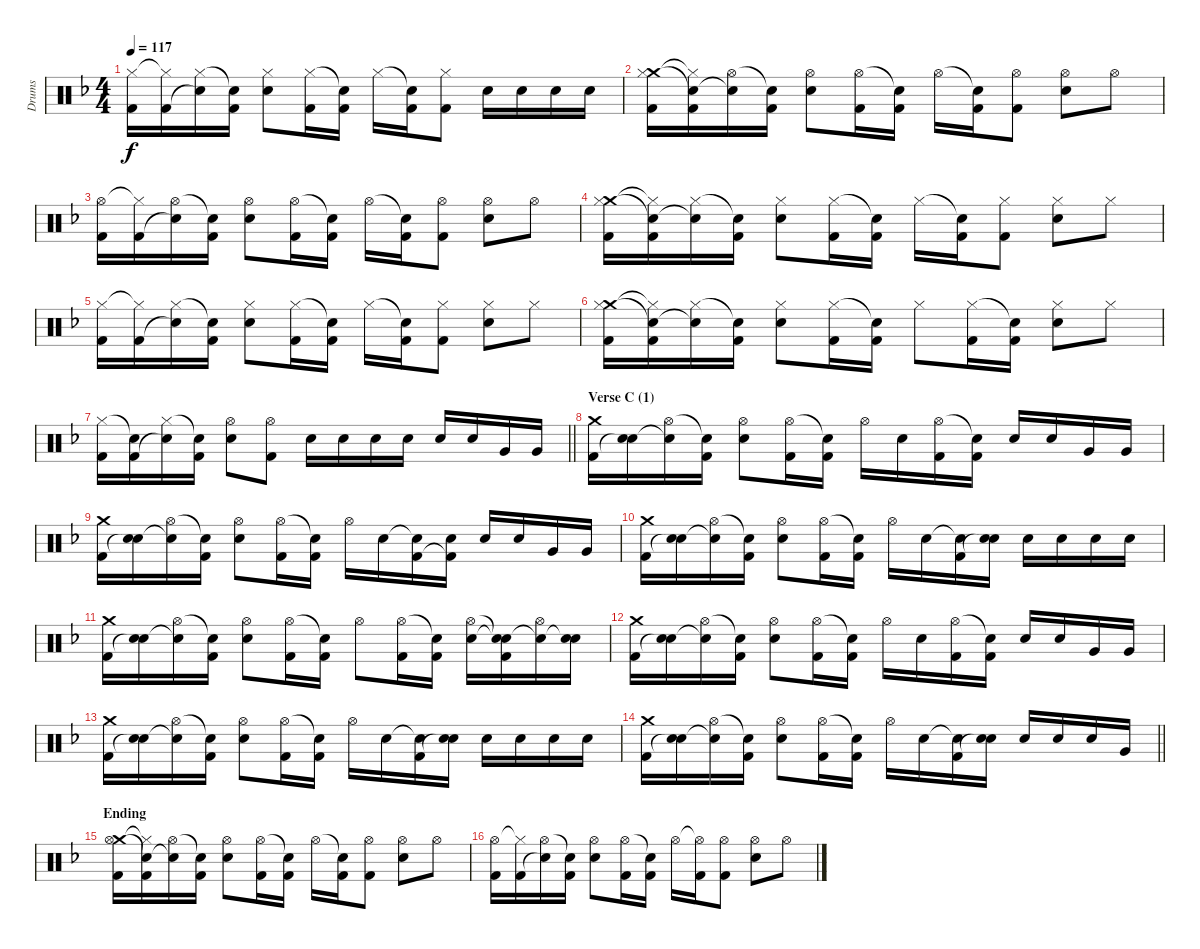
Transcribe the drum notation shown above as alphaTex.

\track ("Drums" "Drums") {instrument percussion}
\staff {score}
\articulation defaults
\ts (4 4)
\tempo 117
\clef neutral
\ks dminor
("Hi-Hat (closed)" "Kick (hit) 2").16{dy f} ("Hi-Hat (closed)"{t} "Kick (hit) 2").16 ("Hi-Hat (closed)" "Snare (hit)"{t}).16 ("Snare (hit)"{t} "Kick (hit) 2").16 ("Hi-Hat (closed)" "Electric Snare (hit)").8 ("Hi-Hat (closed)" "Kick (hit) 2").16 ("Snare (hit)"{t} "Kick (hit) 2").16 "Hi-Hat (closed)".16 ("Snare (hit)"{t} "Kick (hit) 2").16 ("Hi-Hat (closed)" "Kick (hit) 2").8 "Electric Snare (hit)".16 "Electric Snare (hit)".16 "Electric Snare (hit)".16 "Electric Snare (hit)".16 |
("Crash medium (hit)" "Hi-Hat (closed)" "Kick (hit) 2").16 ("Hi-Hat (closed)"{t} "Snare (hit)"{t} "Kick (hit) 2").16 ("Hi-Hat (open)" "Snare (hit)"{t}).16 ("Snare (hit)"{t} "Kick (hit) 2").16 ("Hi-Hat (open)" "Electric Snare (hit)").8 ("Hi-Hat (open)" "Kick (hit) 2").16 ("Snare (hit)"{t} "Kick (hit) 2").16 "Hi-Hat (open)".16 ("Snare (hit)"{t} "Kick (hit) 2").16 ("Hi-Hat (open)" "Kick (hit) 2").8 ("Hi-Hat (open)" "Electric Snare (hit)").8 "Hi-Hat (open)".8 |
("Hi-Hat (open)" "Kick (hit) 2").16 ("Hi-Hat (closed)"{t} "Kick (hit) 2").16 ("Hi-Hat (open)" "Snare (hit)"{t}).16 ("Snare (hit)"{t} "Kick (hit) 2").16 ("Hi-Hat (open)" "Electric Snare (hit)").8 ("Hi-Hat (open)" "Kick (hit) 2").16 ("Snare (hit)"{t} "Kick (hit) 2").16 "Hi-Hat (open)".16 ("Snare (hit)"{t} "Kick (hit) 2").16 ("Hi-Hat (open)" "Kick (hit) 2").8 ("Hi-Hat (open)" "Electric Snare (hit)").8 "Hi-Hat (open)".8 |
("Crash medium (hit)" "Hi-Hat (closed)" "Kick (hit) 2").16 ("Hi-Hat (closed)"{t} "Snare (hit)"{t} "Kick (hit) 2").16 ("Hi-Hat (closed)" "Snare (hit)"{t}).16 ("Snare (hit)"{t} "Kick (hit) 2").16 ("Hi-Hat (closed)" "Electric Snare (hit)").8 ("Hi-Hat (closed)" "Kick (hit) 2").16 ("Snare (hit)"{t} "Kick (hit) 2").16 "Hi-Hat (closed)".16 ("Snare (hit)"{t} "Kick (hit) 2").16 ("Hi-Hat (closed)" "Kick (hit) 2").8 ("Hi-Hat (closed)" "Electric Snare (hit)").8 "Hi-Hat (closed)".8 |
("Hi-Hat (closed)" "Kick (hit) 2").16 ("Hi-Hat (closed)"{t} "Kick (hit) 2").16 ("Hi-Hat (closed)" "Snare (hit)"{t}).16 ("Snare (hit)"{t} "Kick (hit) 2").16 ("Hi-Hat (closed)" "Electric Snare (hit)").8 ("Hi-Hat (closed)" "Kick (hit) 2").16 ("Snare (hit)"{t} "Kick (hit) 2").16 "Hi-Hat (closed)".16 ("Snare (hit)"{t} "Kick (hit) 2").16 ("Hi-Hat (closed)" "Kick (hit) 2").8 ("Hi-Hat (closed)" "Electric Snare (hit)").8 "Hi-Hat (closed)".8 |
("Crash medium (hit)" "Hi-Hat (closed)" "Kick (hit) 2").16 ("Hi-Hat (closed)"{t} "Snare (hit)"{t} "Kick (hit) 2").16 ("Hi-Hat (closed)" "Snare (hit)"{t}).16 ("Snare (hit)"{t} "Kick (hit) 2").16 ("Hi-Hat (closed)" "Electric Snare (hit)").8 ("Hi-Hat (closed)" "Kick (hit) 2").16 ("Snare (hit)"{t} "Kick (hit) 2").16 "Hi-Hat (closed)".8 ("Hi-Hat (closed)" "Kick (hit) 2").16 ("Snare (hit)"{t} "Kick (hit) 2").16 ("Hi-Hat (closed)" "Electric Snare (hit)").8 "Hi-Hat (closed)".8 |
\barLineRight lightlight
("Hi-Hat (closed)" "Kick (hit) 2").16 ("Snare (hit)"{t} "Kick (hit) 2").16 ("Hi-Hat (closed)" "Snare (hit)"{t}).16 ("Snare (hit)"{t} "Kick (hit) 2").16 ("Hi-Hat (open)" "Electric Snare (hit)").8 ("Hi-Hat (open)" "Kick (hit) 2").8 "Electric Snare (hit)".16 "Electric Snare (hit)".16 "Electric Snare (hit)".16 "Electric Snare (hit)".16 "Electric Snare (hit)".16 "Electric Snare (hit)".16 "Very Low Tom (hit)".16 "Very Low Tom (hit)".16 |
\section ("" "Verse C (1)")
("Crash medium (hit)" "Kick (hit) 2").16 ("Electric Snare (hit)" "Snare (hit)"{t}).16 ("Hi-Hat (open)" "Snare (hit)"{t}).16 ("Snare (hit)"{t} "Kick (hit) 2").16 ("Hi-Hat (open)" "Electric Snare (hit)").8 ("Hi-Hat (open)" "Kick (hit) 2").16 ("Snare (hit)"{t} "Kick (hit) 2").16 "Hi-Hat (open)".16 "Electric Snare (hit)".16 ("Hi-Hat (open)" "Kick (hit) 2").16 ("Snare (hit)"{t} "Kick (hit) 2").16 "Electric Snare (hit)".16 "Electric Snare (hit)".16 "Very Low Tom (hit)".16 "Very Low Tom (hit)".16 |
("Crash medium (hit)" "Kick (hit) 2").16 ("Electric Snare (hit)" "Snare (hit)"{t}).16 ("Hi-Hat (open)" "Snare (hit)"{t}).16 ("Snare (hit)"{t} "Kick (hit) 2").16 ("Hi-Hat (open)" "Electric Snare (hit)").8 ("Hi-Hat (open)" "Kick (hit) 2").16 ("Snare (hit)"{t} "Kick (hit) 2").16 "Hi-Hat (open)".16 "Electric Snare (hit)".16 ("Snare (hit)"{t} "Kick (hit) 2").16 ("Electric Snare (hit)" "Kick (hit) 2"{t}).16 "Electric Snare (hit)".16 "Electric Snare (hit)".16 "Very Low Tom (hit)".16 "Very Low Tom (hit)".16 |
("Crash medium (hit)" "Kick (hit) 2").16 ("Electric Snare (hit)" "Snare (hit)"{t}).16 ("Hi-Hat (open)" "Snare (hit)"{t}).16 ("Snare (hit)"{t} "Kick (hit) 2").16 ("Hi-Hat (open)" "Electric Snare (hit)").8 ("Hi-Hat (open)" "Kick (hit) 2").16 ("Snare (hit)"{t} "Kick (hit) 2").16 "Hi-Hat (open)".16 "Electric Snare (hit)".16 ("Snare (hit)"{t} "Kick (hit) 2").16 ("Electric Snare (hit)" "Snare (hit)"{t}).16 "Electric Snare (hit)".16 "Electric Snare (hit)".16 "Electric Snare (hit)".16 "Electric Snare (hit)".16 |
("Crash medium (hit)" "Kick (hit) 2").16 ("Electric Snare (hit)" "Snare (hit)"{t}).16 ("Hi-Hat (open)" "Snare (hit)"{t}).16 ("Snare (hit)"{t} "Kick (hit) 2").16 ("Hi-Hat (open)" "Electric Snare (hit)").8 ("Hi-Hat (open)" "Kick (hit) 2").16 ("Snare (hit)"{t} "Kick (hit) 2").16 "Hi-Hat (open)".8 ("Hi-Hat (open)" "Kick (hit) 2").16 ("Snare (hit)"{t} "Kick (hit) 2").16 ("Hi-Hat (open)" "Electric Snare (hit)").16 ("Snare (hit)"{t} "Electric Snare (hit)"{t} "Kick (hit) 2").16 ("Hi-Hat (open)" "Snare (hit)"{t}).16 ("Electric Snare (hit)" "Snare (hit)"{t}).16 |
("Crash medium (hit)" "Kick (hit) 2").16 ("Electric Snare (hit)" "Snare (hit)"{t}).16 ("Hi-Hat (open)" "Snare (hit)"{t}).16 ("Snare (hit)"{t} "Kick (hit) 2").16 ("Hi-Hat (open)" "Electric Snare (hit)").8 ("Hi-Hat (open)" "Kick (hit) 2").16 ("Snare (hit)"{t} "Kick (hit) 2").16 "Hi-Hat (open)".16 "Electric Snare (hit)".16 ("Hi-Hat (open)" "Kick (hit) 2").16 ("Snare (hit)"{t} "Kick (hit) 2").16 "Electric Snare (hit)".16 "Electric Snare (hit)".16 "Very Low Tom (hit)".16 "Very Low Tom (hit)".16 |
("Crash medium (hit)" "Kick (hit) 2").16 ("Electric Snare (hit)" "Snare (hit)"{t}).16 ("Hi-Hat (open)" "Snare (hit)"{t}).16 ("Snare (hit)"{t} "Kick (hit) 2").16 ("Hi-Hat (open)" "Electric Snare (hit)").8 ("Hi-Hat (open)" "Kick (hit) 2").16 ("Snare (hit)"{t} "Kick (hit) 2").16 "Hi-Hat (open)".16 "Electric Snare (hit)".16 ("Electric Snare (hit)"{t} "Kick (hit) 2").16 ("Electric Snare (hit)" "Snare (hit)"{t}).16 "Electric Snare (hit)".16 "Electric Snare (hit)".16 "Electric Snare (hit)".16 "Electric Snare (hit)".16 |
\barLineRight lightlight
("Crash medium (hit)" "Kick (hit) 2").16 ("Electric Snare (hit)" "Snare (hit)"{t}).16 ("Hi-Hat (open)" "Snare (hit)"{t}).16 ("Snare (hit)"{t} "Kick (hit) 2").16 ("Hi-Hat (open)" "Electric Snare (hit)").8 ("Hi-Hat (open)" "Kick (hit) 2").16 ("Snare (hit)"{t} "Kick (hit) 2").16 "Hi-Hat (open)".16 "Electric Snare (hit)".16 ("Snare (hit)"{t} "Kick (hit) 2").16 ("Electric Snare (hit)" "Snare (hit)"{t}).16 "Electric Snare (hit)".16 "Electric Snare (hit)".16 "Electric Snare (hit)".16 "Very Low Tom (hit)".16 |
\section ("" "Ending")
("Crash medium (hit)" "Hi-Hat (open)" "Kick (hit) 2").16 ("Hi-Hat (closed)"{t} "Snare (hit)"{t} "Kick (hit) 2").16 ("Hi-Hat (open)" "Snare (hit)"{t}).16 ("Snare (hit)"{t} "Kick (hit) 2").16 ("Hi-Hat (open)" "Electric Snare (hit)").8 ("Hi-Hat (open)" "Kick (hit) 2").16 ("Snare (hit)"{t} "Kick (hit) 2").16 "Hi-Hat (open)".16 ("Snare (hit)"{t} "Kick (hit) 2").16 ("Hi-Hat (open)" "Kick (hit) 2").8 ("Hi-Hat (open)" "Electric Snare (hit)").8 "Hi-Hat (open)".8 |
("Hi-Hat (open)" "Kick (hit) 2").16 ("Hi-Hat (closed)"{t} "Kick (hit) 2").16 ("Hi-Hat (open)" "Snare (hit)"{t}).16 ("Snare (hit)"{t} "Kick (hit) 2").16 ("Hi-Hat (open)" "Electric Snare (hit)").8 ("Hi-Hat (open)" "Kick (hit) 2").16 ("Snare (hit)"{t} "Kick (hit) 2").16 "Hi-Hat (open)".16 ("Hi-Hat (open)"{t} "Kick (hit) 2").16 ("Hi-Hat (open)" "Kick (hit) 2").8 ("Hi-Hat (open)" "Electric Snare (hit)").8 "Hi-Hat (open)".8
